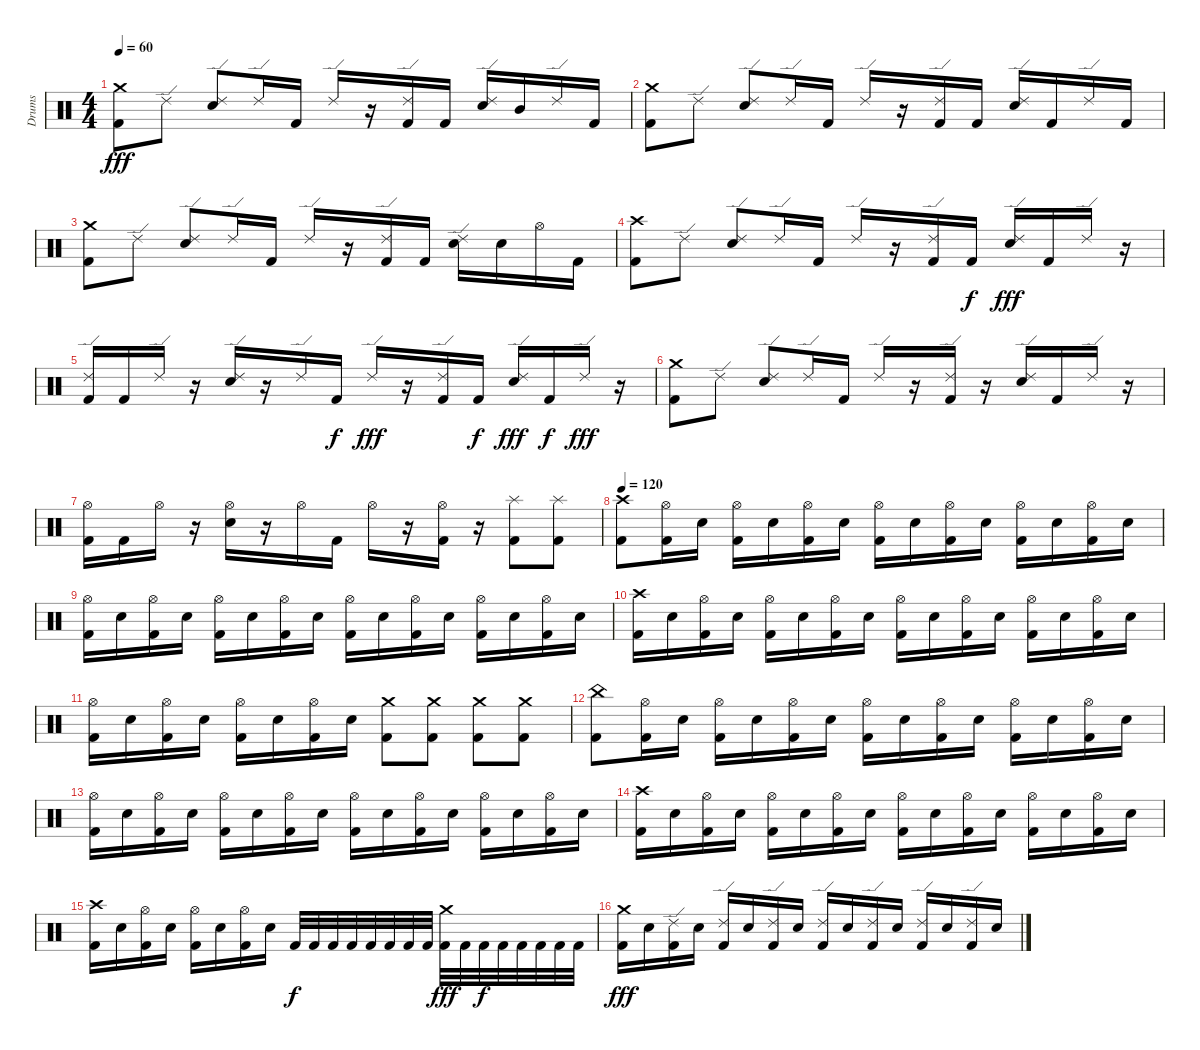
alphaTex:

\track ("Drums" "Drums") {instrument percussion}
\staff {score}
\articulation defaults
\ts (4 4)
\tempo 60
\clef neutral
\ks c
("Crash medium (hit)" "Kick (hit) 2").8{dy fff} "Ride (edge) 2".8 ("Ride (edge) 2" "Electric Snare (hit)").8 "Ride (edge) 2".16 "Kick (hit) 2".16 "Ride (edge) 2".16 r.16 ("Ride (edge) 2" "Kick (hit) 2").16 "Kick (hit) 2".16 ("Ride (edge) 2" "Electric Snare (hit)").16 "Mid Tom (hit)".16 "Ride (edge) 2".16 "Kick (hit) 2".16 |
("Crash medium (hit)" "Kick (hit) 2").8 "Ride (edge) 2".8 ("Ride (edge) 2" "Electric Snare (hit)").8 "Ride (edge) 2".16 "Kick (hit) 2".16 "Ride (edge) 2".16 r.16 ("Ride (edge) 2" "Kick (hit) 2").16 "Kick (hit) 2".16 ("Ride (edge) 2" "Electric Snare (hit)").16 "Kick (hit) 2".16 "Ride (edge) 2".16 "Kick (hit) 2".16 |
("Crash medium (hit)" "Kick (hit) 2").8 "Ride (edge) 2".8 ("Ride (edge) 2" "Electric Snare (hit)").8 "Ride (edge) 2".16 "Kick (hit) 2".16 "Ride (edge) 2".16 r.16 ("Ride (edge) 2" "Kick (hit) 2").16 "Kick (hit) 2".16 ("Ride (edge) 2" "Electric Snare (hit)").16 "Electric Snare (hit)".16 "Hi-Hat (open)".16 "Kick (hit) 2".16 |
("Crash high (hit)" "Kick (hit) 2").8 "Ride (edge) 2".8 ("Ride (edge) 2" "Electric Snare (hit)").8 "Ride (edge) 2".16 "Kick (hit) 2".16 "Ride (edge) 2".16 r.16 ("Ride (edge) 2" "Kick (hit) 2").16 "Kick (hit) 2".16{dy f} ("Ride (edge) 2" "Electric Snare (hit)").16{dy fff} "Kick (hit) 2".16 "Ride (edge) 2".16 r.16 |
("Ride (edge) 2" "Kick (hit) 2").16 "Kick (hit) 2".16 "Ride (edge) 2".16 r.16 ("Ride (edge) 2" "Electric Snare (hit)").16 r.16 "Ride (edge) 2".16 "Kick (hit) 2".16{dy f} "Ride (edge) 2".16{dy fff} r.16 ("Ride (edge) 2" "Kick (hit) 2").16 "Kick (hit) 2".16{dy f} ("Ride (edge) 2" "Electric Snare (hit)").16{dy fff} "Kick (hit) 2".16{dy f} "Ride (edge) 2".16{dy fff} r.16 |
("Crash medium (hit)" "Kick (hit) 2").8 "Ride (edge) 2".8 ("Ride (edge) 2" "Electric Snare (hit)").8 "Ride (edge) 2".16 "Kick (hit) 2".16 "Ride (edge) 2".16 r.16 ("Ride (edge) 2" "Kick (hit) 2").16 r.16 ("Ride (edge) 2" "Electric Snare (hit)").16 "Kick (hit) 2".16 "Ride (edge) 2".16 r.16 |
("Hi-Hat (open)" "Kick (hit) 2").16 "Kick (hit) 2".16 "Hi-Hat (open)".16 r.16 ("Hi-Hat (open)" "Electric Snare (hit)").16 r.16 "Hi-Hat (open)".16 "Kick (hit) 2".16 "Hi-Hat (open)".16 r.16 ("Hi-Hat (open)" "Kick (hit) 2").16 r.16 ("Splash (hit)" "Kick (hit) 2").8 ("Splash (hit)" "Kick (hit) 2").8 |
\tempo 120
("Crash high (hit)" "Kick (hit) 2").8 ("Hi-Hat (open)" "Kick (hit) 2").16 "Electric Snare (hit)".16 ("Hi-Hat (open)" "Kick (hit) 2").16 "Electric Snare (hit)".16 ("Hi-Hat (open)" "Kick (hit) 2").16 "Electric Snare (hit)".16 ("Hi-Hat (open)" "Kick (hit) 2").16 "Electric Snare (hit)".16 ("Hi-Hat (open)" "Kick (hit) 2").16 "Electric Snare (hit)".16 ("Hi-Hat (open)" "Kick (hit) 2").16 "Electric Snare (hit)".16 ("Hi-Hat (open)" "Kick (hit) 2").16 "Electric Snare (hit)".16 |
("Hi-Hat (open)" "Kick (hit) 2").16 "Electric Snare (hit)".16 ("Hi-Hat (open)" "Kick (hit) 2").16 "Electric Snare (hit)".16 ("Hi-Hat (open)" "Kick (hit) 2").16 "Electric Snare (hit)".16 ("Hi-Hat (open)" "Kick (hit) 2").16 "Electric Snare (hit)".16 ("Hi-Hat (open)" "Kick (hit) 2").16 "Electric Snare (hit)".16 ("Hi-Hat (open)" "Kick (hit) 2").16 "Electric Snare (hit)".16 ("Hi-Hat (open)" "Kick (hit) 2").16 "Electric Snare (hit)".16 ("Hi-Hat (open)" "Kick (hit) 2").16 "Electric Snare (hit)".16 |
("Crash high (hit)" "Kick (hit) 2").16 "Electric Snare (hit)".16 ("Hi-Hat (open)" "Kick (hit) 2").16 "Electric Snare (hit)".16 ("Hi-Hat (open)" "Kick (hit) 2").16 "Electric Snare (hit)".16 ("Hi-Hat (open)" "Kick (hit) 2").16 "Electric Snare (hit)".16 ("Hi-Hat (open)" "Kick (hit) 2").16 "Electric Snare (hit)".16 ("Hi-Hat (open)" "Kick (hit) 2").16 "Electric Snare (hit)".16 ("Hi-Hat (open)" "Kick (hit) 2").16 "Electric Snare (hit)".16 ("Hi-Hat (open)" "Kick (hit) 2").16 "Electric Snare (hit)".16 |
("Hi-Hat (open)" "Kick (hit) 2").16 "Electric Snare (hit)".16 ("Hi-Hat (open)" "Kick (hit) 2").16 "Electric Snare (hit)".16 ("Hi-Hat (open)" "Kick (hit) 2").16 "Electric Snare (hit)".16 ("Hi-Hat (open)" "Kick (hit) 2").16 "Electric Snare (hit)".16 ("Crash medium (hit)" "Kick (hit) 2").8 ("Crash medium (hit)" "Kick (hit) 2").8 ("Crash medium (hit)" "Kick (hit) 2").8 ("Crash medium (hit)" "Kick (hit) 2").8 |
("China (hit)" "Kick (hit) 2").8 ("Hi-Hat (open)" "Kick (hit) 2").16 "Electric Snare (hit)".16 ("Hi-Hat (open)" "Kick (hit) 2").16 "Electric Snare (hit)".16 ("Hi-Hat (open)" "Kick (hit) 2").16 "Electric Snare (hit)".16 ("Hi-Hat (open)" "Kick (hit) 2").16 "Electric Snare (hit)".16 ("Hi-Hat (open)" "Kick (hit) 2").16 "Electric Snare (hit)".16 ("Hi-Hat (open)" "Kick (hit) 2").16 "Electric Snare (hit)".16 ("Hi-Hat (open)" "Kick (hit) 2").16 "Electric Snare (hit)".16 |
("Hi-Hat (open)" "Kick (hit) 2").16 "Electric Snare (hit)".16 ("Hi-Hat (open)" "Kick (hit) 2").16 "Electric Snare (hit)".16 ("Hi-Hat (open)" "Kick (hit) 2").16 "Electric Snare (hit)".16 ("Hi-Hat (open)" "Kick (hit) 2").16 "Electric Snare (hit)".16 ("Hi-Hat (open)" "Kick (hit) 2").16 "Electric Snare (hit)".16 ("Hi-Hat (open)" "Kick (hit) 2").16 "Electric Snare (hit)".16 ("Hi-Hat (open)" "Kick (hit) 2").16 "Electric Snare (hit)".16 ("Hi-Hat (open)" "Kick (hit) 2").16 "Electric Snare (hit)".16 |
("Crash high (hit)" "Kick (hit) 2").16 "Electric Snare (hit)".16 ("Hi-Hat (open)" "Kick (hit) 2").16 "Electric Snare (hit)".16 ("Hi-Hat (open)" "Kick (hit) 2").16 "Electric Snare (hit)".16 ("Hi-Hat (open)" "Kick (hit) 2").16 "Electric Snare (hit)".16 ("Hi-Hat (open)" "Kick (hit) 2").16 "Electric Snare (hit)".16 ("Hi-Hat (open)" "Kick (hit) 2").16 "Electric Snare (hit)".16 ("Hi-Hat (open)" "Kick (hit) 2").16 "Electric Snare (hit)".16 ("Hi-Hat (open)" "Kick (hit) 2").16 "Electric Snare (hit)".16 |
("Crash high (hit)" "Kick (hit) 2").16 "Electric Snare (hit)".16 ("Hi-Hat (open)" "Kick (hit) 2").16 "Electric Snare (hit)".16 ("Hi-Hat (open)" "Kick (hit) 2").16 "Electric Snare (hit)".16 ("Hi-Hat (open)" "Kick (hit) 2").16 "Electric Snare (hit)".16 "Kick (hit) 2".32{dy f} "Kick (hit) 2".32 "Kick (hit) 2".32 "Kick (hit) 2".32 "Kick (hit) 2".32 "Kick (hit) 2".32 "Kick (hit) 2".32 "Kick (hit) 2".32 ("Crash medium (hit)" "Kick (hit) 2").32{dy fff} "Kick (hit) 2".32 "Kick (hit) 2".32{dy f} "Kick (hit) 2".32 "Kick (hit) 2".32 "Kick (hit) 2".32 "Kick (hit) 2".32 "Kick (hit) 2".32 |
("Crash medium (hit)" "Kick (hit) 2").16{dy fff} "Electric Snare (hit)".16 ("Ride (edge) 2" "Kick (hit) 2").16 "Electric Snare (hit)".16 ("Ride (edge) 2" "Kick (hit) 2").16 "Electric Snare (hit)".16 ("Ride (edge) 2" "Kick (hit) 2").16 "Electric Snare (hit)".16 ("Ride (edge) 2" "Kick (hit) 2").16 "Electric Snare (hit)".16 ("Ride (edge) 2" "Kick (hit) 2").16 "Electric Snare (hit)".16 ("Ride (edge) 2" "Kick (hit) 2").16 "Electric Snare (hit)".16 ("Ride (edge) 2" "Kick (hit) 2").16 "Electric Snare (hit)".16
